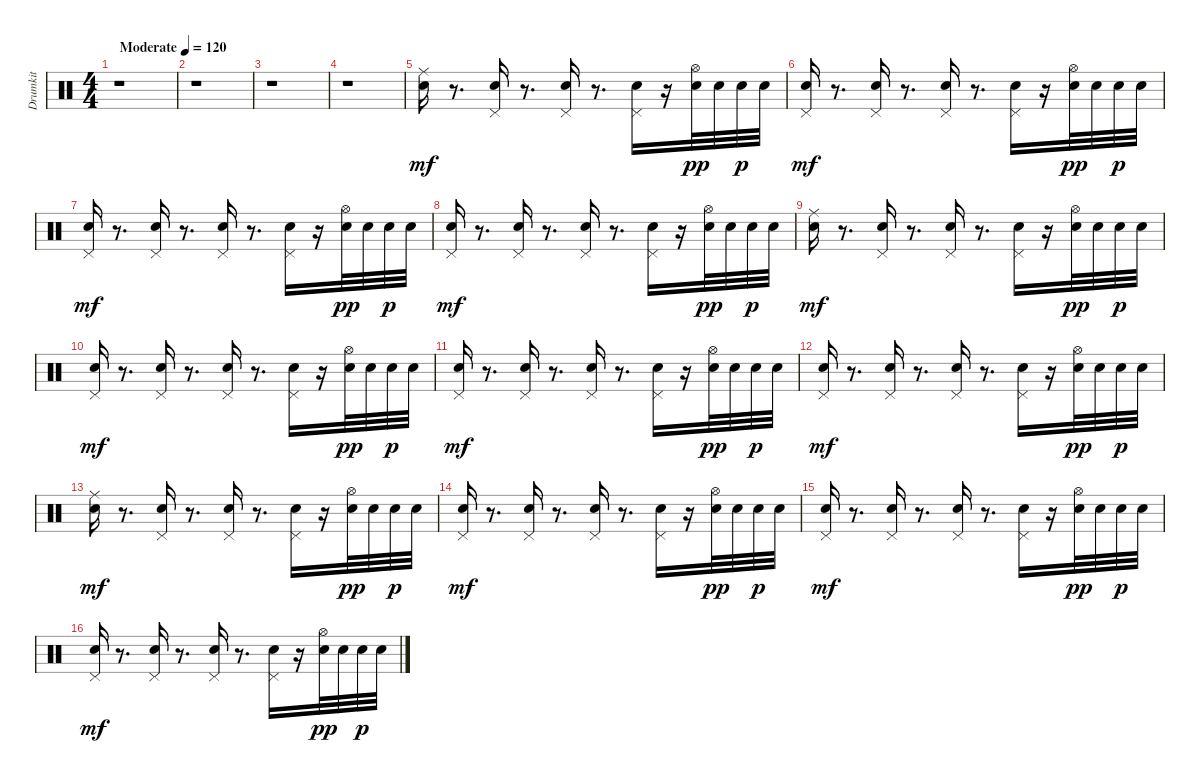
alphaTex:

\track ("Drumkit" "Drumkit") {instrument percussion}
\staff {score}
\articulation defaults
\ts (4 4)
\tempo (120 "Moderate")
\clef neutral
\ks c
r.1{dy mf} |
r.1 |
r.1 |
r.1 |
("Snare (hit) 2" "Ride (middle)").16 r.8{d} ("Snare (hit) 2" "Pedal Hi-Hat (hit)").16 r.8{d} ("Snare (hit) 2" "Pedal Hi-Hat (hit)").16 r.8{d} ("Snare (hit) 2" "Pedal Hi-Hat (hit)").16 r.16 ("Snare (hit) 2" "Hi-Hat (open)").32{dy pp} "Snare (hit) 2".32 "Snare (hit) 2".32{dy p} "Snare (hit) 2".32 |
("Snare (hit) 2" "Pedal Hi-Hat (hit)").16{dy mf} r.8{d} ("Snare (hit) 2" "Pedal Hi-Hat (hit)").16 r.8{d} ("Snare (hit) 2" "Pedal Hi-Hat (hit)").16 r.8{d} ("Snare (hit) 2" "Pedal Hi-Hat (hit)").16 r.16 ("Snare (hit) 2" "Hi-Hat (open)").32{dy pp} "Snare (hit) 2".32 "Snare (hit) 2".32{dy p} "Snare (hit) 2".32 |
("Snare (hit) 2" "Pedal Hi-Hat (hit)").16{dy mf} r.8{d} ("Snare (hit) 2" "Pedal Hi-Hat (hit)").16 r.8{d} ("Snare (hit) 2" "Pedal Hi-Hat (hit)").16 r.8{d} ("Snare (hit) 2" "Pedal Hi-Hat (hit)").16 r.16 ("Snare (hit) 2" "Hi-Hat (open)").32{dy pp} "Snare (hit) 2".32 "Snare (hit) 2".32{dy p} "Snare (hit) 2".32 |
("Snare (hit) 2" "Pedal Hi-Hat (hit)").16{dy mf} r.8{d} ("Snare (hit) 2" "Pedal Hi-Hat (hit)").16 r.8{d} ("Snare (hit) 2" "Pedal Hi-Hat (hit)").16 r.8{d} ("Snare (hit) 2" "Pedal Hi-Hat (hit)").16 r.16 ("Snare (hit) 2" "Hi-Hat (open)").32{dy pp} "Snare (hit) 2".32 "Snare (hit) 2".32{dy p} "Snare (hit) 2".32 |
("Snare (hit) 2" "Ride (middle)").16{dy mf} r.8{d} ("Snare (hit) 2" "Pedal Hi-Hat (hit)").16 r.8{d} ("Snare (hit) 2" "Pedal Hi-Hat (hit)").16 r.8{d} ("Snare (hit) 2" "Pedal Hi-Hat (hit)").16 r.16 ("Snare (hit) 2" "Hi-Hat (open)").32{dy pp} "Snare (hit) 2".32 "Snare (hit) 2".32{dy p} "Snare (hit) 2".32 |
("Snare (hit) 2" "Pedal Hi-Hat (hit)").16{dy mf} r.8{d} ("Snare (hit) 2" "Pedal Hi-Hat (hit)").16 r.8{d} ("Snare (hit) 2" "Pedal Hi-Hat (hit)").16 r.8{d} ("Snare (hit) 2" "Pedal Hi-Hat (hit)").16 r.16 ("Snare (hit) 2" "Hi-Hat (open)").32{dy pp} "Snare (hit) 2".32 "Snare (hit) 2".32{dy p} "Snare (hit) 2".32 |
("Snare (hit) 2" "Pedal Hi-Hat (hit)").16{dy mf} r.8{d} ("Snare (hit) 2" "Pedal Hi-Hat (hit)").16 r.8{d} ("Snare (hit) 2" "Pedal Hi-Hat (hit)").16 r.8{d} ("Snare (hit) 2" "Pedal Hi-Hat (hit)").16 r.16 ("Snare (hit) 2" "Hi-Hat (open)").32{dy pp} "Snare (hit) 2".32 "Snare (hit) 2".32{dy p} "Snare (hit) 2".32 |
("Snare (hit) 2" "Pedal Hi-Hat (hit)").16{dy mf} r.8{d} ("Snare (hit) 2" "Pedal Hi-Hat (hit)").16 r.8{d} ("Snare (hit) 2" "Pedal Hi-Hat (hit)").16 r.8{d} ("Snare (hit) 2" "Pedal Hi-Hat (hit)").16 r.16 ("Snare (hit) 2" "Hi-Hat (open)").32{dy pp} "Snare (hit) 2".32 "Snare (hit) 2".32{dy p} "Snare (hit) 2".32 |
("Snare (hit) 2" "Ride (middle)").16{dy mf} r.8{d} ("Snare (hit) 2" "Pedal Hi-Hat (hit)").16 r.8{d} ("Snare (hit) 2" "Pedal Hi-Hat (hit)").16 r.8{d} ("Snare (hit) 2" "Pedal Hi-Hat (hit)").16 r.16 ("Snare (hit) 2" "Hi-Hat (open)").32{dy pp} "Snare (hit) 2".32 "Snare (hit) 2".32{dy p} "Snare (hit) 2".32 |
("Snare (hit) 2" "Pedal Hi-Hat (hit)").16{dy mf} r.8{d} ("Snare (hit) 2" "Pedal Hi-Hat (hit)").16 r.8{d} ("Snare (hit) 2" "Pedal Hi-Hat (hit)").16 r.8{d} ("Snare (hit) 2" "Pedal Hi-Hat (hit)").16 r.16 ("Snare (hit) 2" "Hi-Hat (open)").32{dy pp} "Snare (hit) 2".32 "Snare (hit) 2".32{dy p} "Snare (hit) 2".32 |
("Snare (hit) 2" "Pedal Hi-Hat (hit)").16{dy mf} r.8{d} ("Snare (hit) 2" "Pedal Hi-Hat (hit)").16 r.8{d} ("Snare (hit) 2" "Pedal Hi-Hat (hit)").16 r.8{d} ("Snare (hit) 2" "Pedal Hi-Hat (hit)").16 r.16 ("Snare (hit) 2" "Hi-Hat (open)").32{dy pp} "Snare (hit) 2".32 "Snare (hit) 2".32{dy p} "Snare (hit) 2".32 |
("Snare (hit) 2" "Pedal Hi-Hat (hit)").16{dy mf} r.8{d} ("Snare (hit) 2" "Pedal Hi-Hat (hit)").16 r.8{d} ("Snare (hit) 2" "Pedal Hi-Hat (hit)").16 r.8{d} ("Snare (hit) 2" "Pedal Hi-Hat (hit)").16 r.16 ("Snare (hit) 2" "Hi-Hat (open)").32{dy pp} "Snare (hit) 2".32 "Snare (hit) 2".32{dy p} "Snare (hit) 2".32
